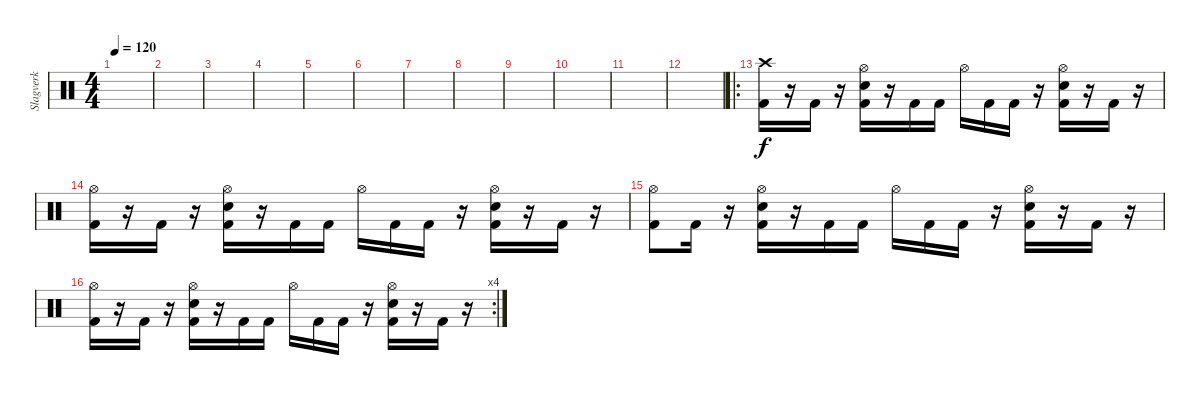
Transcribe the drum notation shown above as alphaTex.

\track ("Slagverk" "Slagverk") {instrument percussion}
\staff {score}
\articulation defaults
\ts (4 4)
\tempo 120
\clef neutral
\ks c
|
|
|
|
|
|
|
|
|
|
|
|
\ro
("Kick (hit) 2" "Crash high (hit)").16 r.16 "Kick (hit) 2".16 r.16 ("Kick (hit) 2" "Electric Snare (hit)" "Hi-Hat (open)").16 r.16 "Kick (hit) 2".16 "Kick (hit) 2".16 "Hi-Hat (open)".16 "Kick (hit) 2".16 "Kick (hit) 2".16 r.16 ("Kick (hit) 2" "Electric Snare (hit)" "Hi-Hat (open)").16 r.16 "Kick (hit) 2".16 r.16 |
("Kick (hit) 2" "Hi-Hat (open)").16 r.16 "Kick (hit) 2".16 r.16 ("Kick (hit) 2" "Electric Snare (hit)" "Hi-Hat (open)").16 r.16 "Kick (hit) 2".16 "Kick (hit) 2".16 "Hi-Hat (open)".16 "Kick (hit) 2".16 "Kick (hit) 2".16 r.16 ("Kick (hit) 2" "Electric Snare (hit)" "Hi-Hat (open)").16 r.16 "Kick (hit) 2".16 r.16 |
("Kick (hit) 2" "Hi-Hat (open)").8 "Kick (hit) 2".16 r.16 ("Kick (hit) 2" "Electric Snare (hit)" "Hi-Hat (open)").16 r.16 "Kick (hit) 2".16 "Kick (hit) 2".16 "Hi-Hat (open)".16 "Kick (hit) 2".16 "Kick (hit) 2".16 r.16 ("Kick (hit) 2" "Electric Snare (hit)" "Hi-Hat (open)").16 r.16 "Kick (hit) 2".16 r.16 |
\rc 4
("Kick (hit) 2" "Hi-Hat (open)").16 r.16 "Kick (hit) 2".16 r.16 ("Kick (hit) 2" "Electric Snare (hit)" "Hi-Hat (open)").16 r.16 "Kick (hit) 2".16 "Kick (hit) 2".16 "Hi-Hat (open)".16 "Kick (hit) 2".16 "Kick (hit) 2".16 r.16 ("Kick (hit) 2" "Electric Snare (hit)" "Hi-Hat (open)").16 r.16 "Kick (hit) 2".16 r.16
